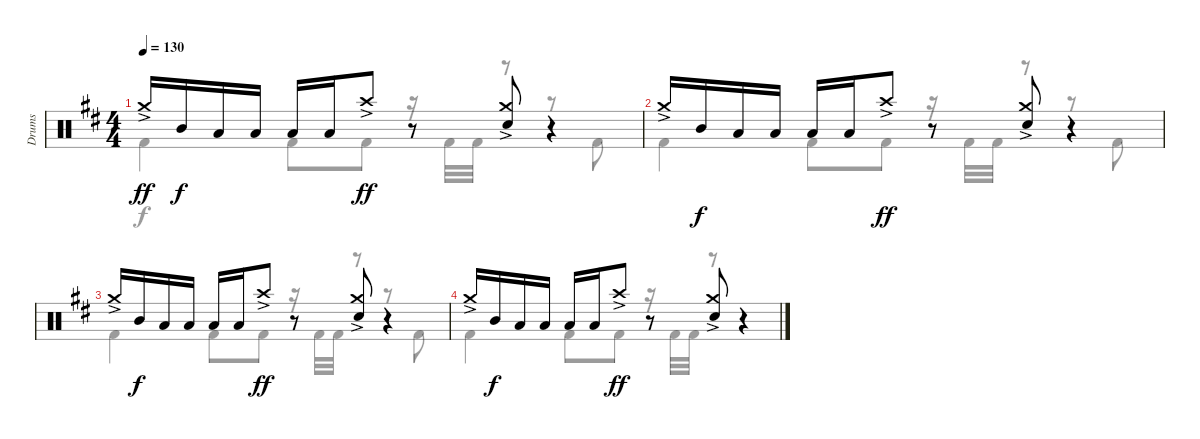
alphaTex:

\track ("Drums" "Drums") {instrument percussion}
\staff {score}
\articulation defaults
\voice
\ts (4 4)
\tempo 130
\clef neutral
\ks bminor "Crash medium (hit)"{ac}.16{dy ff} "Mid Tom (hit)".16{dy f} "Low Tom (hit)".16 "Low Tom (hit)".16 "Low Tom (hit)".16 "Low Tom (hit)".16 "Crash high (hit)"{ac}.8{dy ff}
r.8 ("Crash medium (hit)"{ac} "Snare (hit) 2").8 r.4 |
"Crash medium (hit)"{ac}.16 "Mid Tom (hit)".16{dy f} "Low Tom (hit)".16 "Low Tom (hit)".16 "Low Tom (hit)".16 "Low Tom (hit)".16 "Crash high (hit)"{ac}.8{dy ff} r.8 ("Crash medium (hit)"{ac} "Snare (hit) 2").8 r.4 |
"Crash medium (hit)"{ac}.16 "Mid Tom (hit)".16{dy f} "Low Tom (hit)".16 "Low Tom (hit)".16 "Low Tom (hit)".16 "Low Tom (hit)".16 "Crash high (hit)"{ac}.8{dy ff} r.8 ("Crash medium (hit)"{ac} "Snare (hit) 2").8 r.4 |
"Crash medium (hit)"{ac}.16 "Mid Tom (hit)".16{dy f} "Low Tom (hit)".16 "Low Tom (hit)".16 "Low Tom (hit)".16 "Low Tom (hit)".16 "Crash high (hit)"{ac}.8{dy ff} r.8 ("Crash medium (hit)"{ac} "Snare (hit) 2").8 r.4
\voice
\clef neutral
\ottava regular
\simile none
\ks bminor "Kick (hit) 2".4{dy f} "Kick (hit) 2".8 "Kick (hit) 2".8
r.16 "Kick (hit) 2".32 "Kick (hit) 2".32 r.8 r.8 "Kick (hit) 2".8 |
"Kick (hit) 2".4 "Kick (hit) 2".8 "Kick (hit) 2".8 r.16 "Kick (hit) 2".32 "Kick (hit) 2".32 r.8 r.8 "Kick (hit) 2".8 |
"Kick (hit) 2".4 "Kick (hit) 2".8 "Kick (hit) 2".8 r.16 "Kick (hit) 2".32 "Kick (hit) 2".32 r.8 r.8 "Kick (hit) 2".8 |
"Kick (hit) 2".4 "Kick (hit) 2".8 "Kick (hit) 2".8 r.16 "Kick (hit) 2".32 "Kick (hit) 2".32 r.8 r.4
